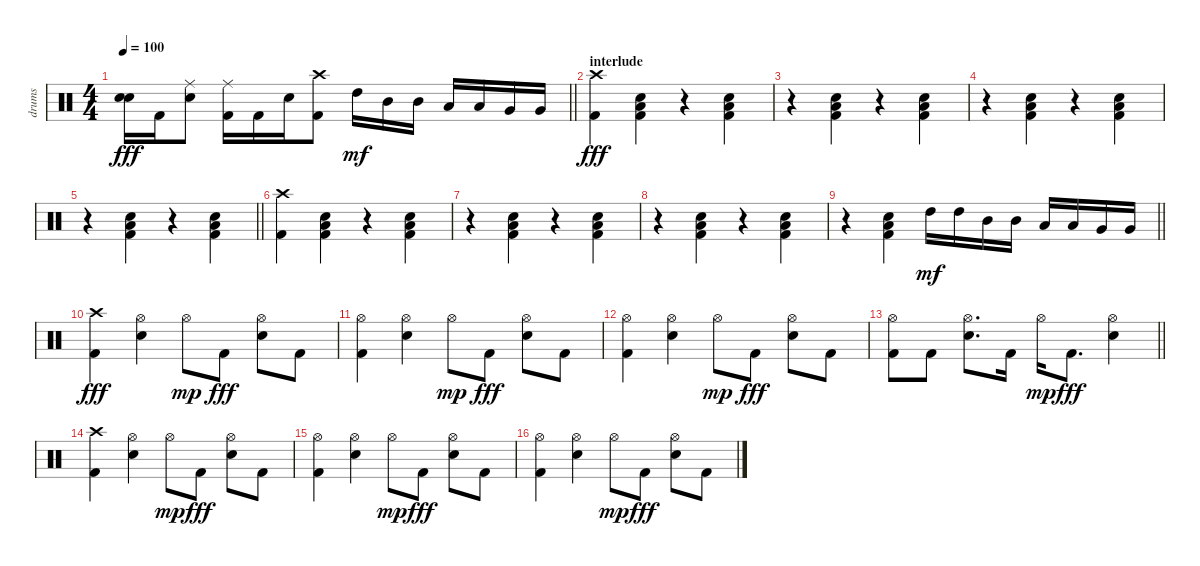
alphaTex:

\track ("drums" "drums") {instrument percussion}
\staff {score}
\articulation defaults
\ts (4 4)
\tempo 100
\clef neutral
\barLineRight lightlight
\ks c
("Snare (hit)"{t} "Snare (hit)"{t}).16{dy fff} "Kick (hit) 2".16 ("Ride (middle)" "Snare (hit) 2").8 ("Ride (middle)" "Kick (hit) 2").16 "Kick (hit) 2".16 "Snare (hit) 2".16 ("Crash high (hit)" "Kick (hit) 2").8 "High Tom (hit)".16{dy mf} "Mid Tom (hit)".16 "Mid Tom (hit)".16 "Low Tom (hit)".16 "Low Tom (hit)".16 "Very Low Tom (hit)".16 "Very Low Tom (hit)".16 |
\section ("" "interlude")
("Crash high (hit)" "Kick (hit) 2").4{dy fff} ("Snare (hit) 2" "Low Tom (hit)" "Kick (hit) 2").4 r.4 ("Snare (hit) 2" "Low Tom (hit)" "Kick (hit) 2").4 |
r.4 ("Snare (hit) 2" "Low Tom (hit)" "Kick (hit) 2").4 r.4 ("Snare (hit) 2" "Low Tom (hit)" "Kick (hit) 2").4 |
r.4 ("Snare (hit) 2" "Low Tom (hit)" "Kick (hit) 2").4 r.4 ("Snare (hit) 2" "Low Tom (hit)" "Kick (hit) 2").4 |
\barLineRight lightlight
r.4 ("Snare (hit) 2" "Low Tom (hit)" "Kick (hit) 2").4 r.4 ("Snare (hit) 2" "Low Tom (hit)" "Kick (hit) 2").4 |
("Crash high (hit)" "Kick (hit) 2").4 ("Snare (hit) 2" "Low Tom (hit)" "Kick (hit) 2").4 r.4 ("Snare (hit) 2" "Low Tom (hit)" "Kick (hit) 2").4 |
r.4 ("Snare (hit) 2" "Low Tom (hit)" "Kick (hit) 2").4 r.4 ("Snare (hit) 2" "Low Tom (hit)" "Kick (hit) 2").4 |
r.4 ("Snare (hit) 2" "Low Tom (hit)" "Kick (hit) 2").4 r.4 ("Snare (hit) 2" "Low Tom (hit)" "Kick (hit) 2").4 |
\barLineRight lightlight
r.4 ("Snare (hit) 2" "Low Tom (hit)" "Kick (hit) 2").4 "High Tom (hit)".16{dy mf} "High Tom (hit)".16 "Mid Tom (hit)".16 "Mid Tom (hit)".16 "Low Tom (hit)".16 "Low Tom (hit)".16 "Very Low Tom (hit)".16 "Very Low Tom (hit)".16 |
("Crash high (hit)" "Kick (hit) 2").4{dy fff} ("Hi-Hat (open)" "Snare (hit) 2").4 "Hi-Hat (open)".8{dy mp} "Kick (hit) 2".8{dy fff} ("Hi-Hat (open)" "Snare (hit) 2").8 "Kick (hit) 2".8 |
("Hi-Hat (open)" "Kick (hit) 2").4 ("Hi-Hat (open)" "Snare (hit) 2").4 "Hi-Hat (open)".8{dy mp} "Kick (hit) 2".8{dy fff} ("Hi-Hat (open)" "Snare (hit) 2").8 "Kick (hit) 2".8 |
("Hi-Hat (open)" "Kick (hit) 2").4 ("Hi-Hat (open)" "Snare (hit) 2").4 "Hi-Hat (open)".8{dy mp} "Kick (hit) 2".8{dy fff} ("Hi-Hat (open)" "Snare (hit) 2").8 "Kick (hit) 2".8 |
\barLineRight lightlight
("Hi-Hat (open)" "Kick (hit) 2").8 "Kick (hit) 2".8 ("Hi-Hat (open)" "Snare (hit) 2").8{d} "Kick (hit) 2".16 "Hi-Hat (open)".16{dy mp} "Kick (hit) 2".8{d dy fff} ("Hi-Hat (open)" "Snare (hit) 2").4 |
("Crash high (hit)" "Kick (hit) 2").4 ("Hi-Hat (open)" "Snare (hit) 2").4 "Hi-Hat (open)".8{dy mp} "Kick (hit) 2".8{dy fff} ("Hi-Hat (open)" "Snare (hit) 2").8 "Kick (hit) 2".8 |
("Hi-Hat (open)" "Kick (hit) 2").4 ("Hi-Hat (open)" "Snare (hit) 2").4 "Hi-Hat (open)".8{dy mp} "Kick (hit) 2".8{dy fff} ("Hi-Hat (open)" "Snare (hit) 2").8 "Kick (hit) 2".8 |
("Hi-Hat (open)" "Kick (hit) 2").4 ("Hi-Hat (open)" "Snare (hit) 2").4 "Hi-Hat (open)".8{dy mp} "Kick (hit) 2".8{dy fff} ("Hi-Hat (open)" "Snare (hit) 2").8 "Kick (hit) 2".8
